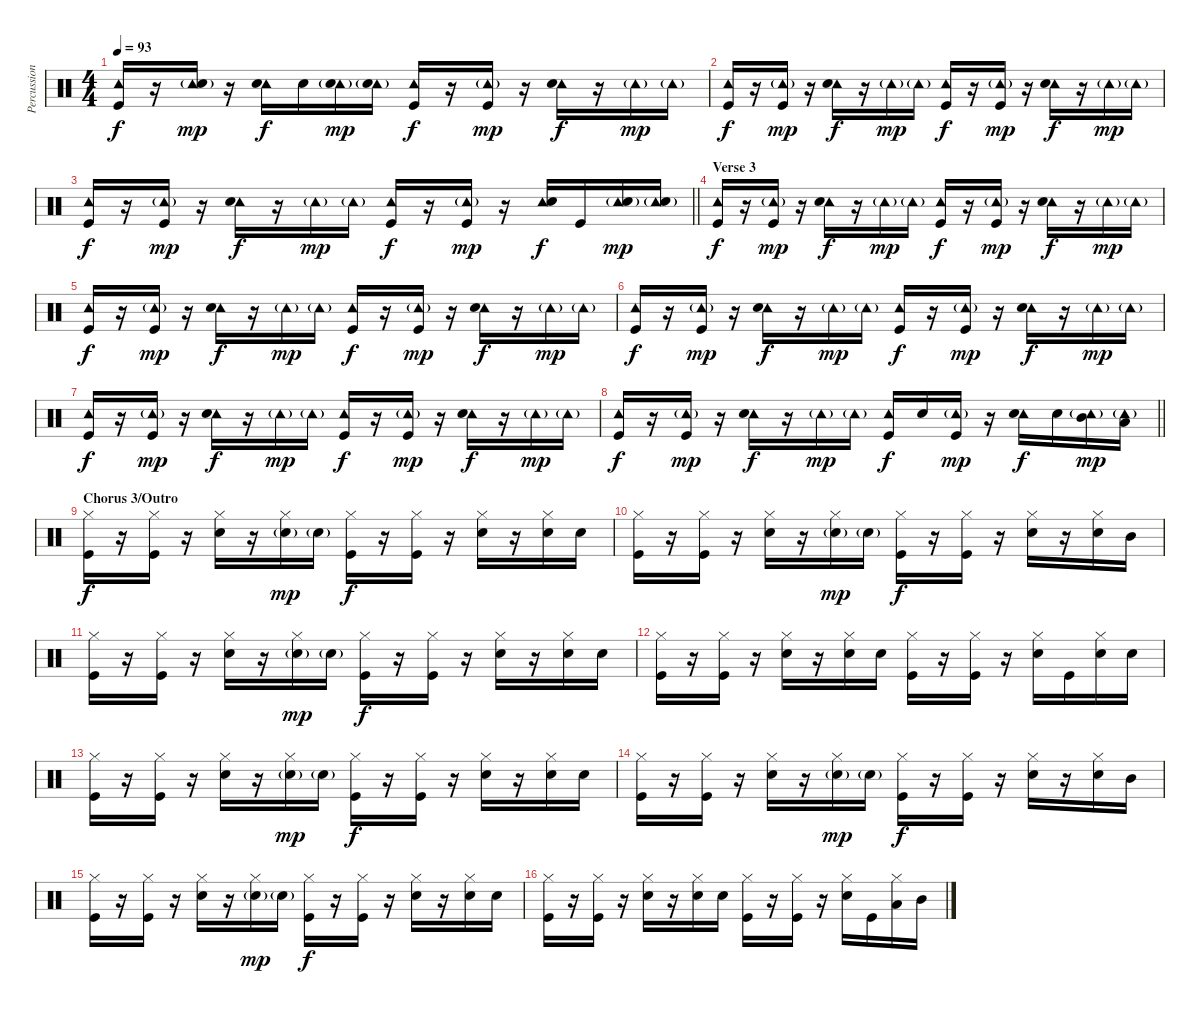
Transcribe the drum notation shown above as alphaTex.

\track ("Percussion" "Percussion") {instrument percussion}
\staff {score}
\articulation defaults
\ts (4 4)
\tempo 93
\clef neutral
\ks c
("Tambourine (hit)" "Kick (hit)").16{dy f} r.16 ("Tambourine (hit)"{g} "Snare (hit) 2").16{dy mp} r.16 ("Tambourine (hit)" "Snare (hit) 2").16{dy f} "Snare (hit) 2".16 ("Tambourine (hit)"{g} "Snare (hit) 2").16{dy mp} ("Tambourine (hit)"{g} "Snare (hit) 2").16 ("Tambourine (hit)" "Kick (hit)").16{dy f} r.16 ("Tambourine (hit)"{g} "Kick (hit)").16{dy mp} r.16 ("Tambourine (hit)" "Snare (hit) 2").16{dy f} r.16 "Tambourine (hit)"{g}.16{dy mp} "Tambourine (hit)"{g}.16 |
("Tambourine (hit)" "Kick (hit)").16{dy f} r.16 ("Tambourine (hit)"{g} "Kick (hit)").16{dy mp} r.16 ("Tambourine (hit)" "Snare (hit) 2").16{dy f} r.16 "Tambourine (hit)"{g}.16{dy mp} "Tambourine (hit)"{g}.16 ("Tambourine (hit)" "Kick (hit)").16{dy f} r.16 ("Tambourine (hit)"{g} "Kick (hit)").16{dy mp} r.16 ("Tambourine (hit)" "Snare (hit) 2").16{dy f} r.16 "Tambourine (hit)"{g}.16{dy mp} "Tambourine (hit)"{g}.16 |
\barLineRight lightlight
("Tambourine (hit)" "Kick (hit)").16{dy f} r.16 ("Tambourine (hit)"{g} "Kick (hit)").16{dy mp} r.16 ("Tambourine (hit)" "Snare (hit) 2").16{dy f} r.16 "Tambourine (hit)"{g}.16{dy mp} "Tambourine (hit)"{g}.16 ("Tambourine (hit)" "Kick (hit)").16{dy f} r.16 ("Tambourine (hit)"{g} "Kick (hit)").16{dy mp} r.16 ("Tambourine (hit)" "Snare (hit) 2").16{dy f} "Kick (hit)".16 ("Tambourine (hit)"{g} "Snare (hit) 2").16{dy mp} ("Tambourine (hit)"{g} "Snare (hit) 2").16 |
\section ("" "Verse 3")
("Tambourine (hit)" "Kick (hit)").16{dy f} r.16 ("Tambourine (hit)"{g} "Kick (hit)").16{dy mp} r.16 ("Tambourine (hit)" "Snare (hit) 2").16{dy f} r.16 "Tambourine (hit)"{g}.16{dy mp} "Tambourine (hit)"{g}.16 ("Tambourine (hit)" "Kick (hit)").16{dy f} r.16 ("Tambourine (hit)"{g} "Kick (hit)").16{dy mp} r.16 ("Tambourine (hit)" "Snare (hit) 2").16{dy f} r.16 "Tambourine (hit)"{g}.16{dy mp} "Tambourine (hit)"{g}.16 |
("Tambourine (hit)" "Kick (hit)").16{dy f} r.16 ("Tambourine (hit)"{g} "Kick (hit)").16{dy mp} r.16 ("Tambourine (hit)" "Snare (hit) 2").16{dy f} r.16 "Tambourine (hit)"{g}.16{dy mp} "Tambourine (hit)"{g}.16 ("Tambourine (hit)" "Kick (hit)").16{dy f} r.16 ("Tambourine (hit)"{g} "Kick (hit)").16{dy mp} r.16 ("Tambourine (hit)" "Snare (hit) 2").16{dy f} r.16 "Tambourine (hit)"{g}.16{dy mp} "Tambourine (hit)"{g}.16 |
("Tambourine (hit)" "Kick (hit)").16{dy f} r.16 ("Tambourine (hit)"{g} "Kick (hit)").16{dy mp} r.16 ("Tambourine (hit)" "Snare (hit) 2").16{dy f} r.16 "Tambourine (hit)"{g}.16{dy mp} "Tambourine (hit)"{g}.16 ("Tambourine (hit)" "Kick (hit)").16{dy f} r.16 ("Tambourine (hit)"{g} "Kick (hit)").16{dy mp} r.16 ("Tambourine (hit)" "Snare (hit) 2").16{dy f} r.16 "Tambourine (hit)"{g}.16{dy mp} "Tambourine (hit)"{g}.16 |
("Tambourine (hit)" "Kick (hit)").16{dy f} r.16 ("Tambourine (hit)"{g} "Kick (hit)").16{dy mp} r.16 ("Tambourine (hit)" "Snare (hit) 2").16{dy f} r.16 "Tambourine (hit)"{g}.16{dy mp} "Tambourine (hit)"{g}.16 ("Tambourine (hit)" "Kick (hit)").16{dy f} r.16 ("Tambourine (hit)"{g} "Kick (hit)").16{dy mp} r.16 ("Tambourine (hit)" "Snare (hit) 2").16{dy f} r.16 "Tambourine (hit)"{g}.16{dy mp} "Tambourine (hit)"{g}.16 |
\barLineRight lightlight
("Tambourine (hit)" "Kick (hit)").16{dy f} r.16 ("Tambourine (hit)"{g} "Kick (hit)").16{dy mp} r.16 ("Tambourine (hit)" "Snare (hit) 2").16{dy f} r.16 "Tambourine (hit)"{g}.16{dy mp} "Tambourine (hit)"{g}.16 ("Tambourine (hit)" "Kick (hit)").16{dy f} "Snare (hit) 2".16 ("Tambourine (hit)"{g} "Kick (hit)").16{dy mp} r.16 ("Tambourine (hit)" "Snare (hit) 2").16{dy f} "Snare (hit) 2".16 ("Tambourine (hit)"{g} "Mid Tom (hit)").16{dy mp} ("Tambourine (hit)"{g} "Low Tom (hit)").16 |
\section ("" "Chorus 3/Outro")
("Hi-Hat (closed)" "Kick (hit)").16{dy f} r.16 ("Hi-Hat (closed)" "Kick (hit)").16 r.16 ("Hi-Hat (closed)" "Snare (hit) 2").16 r.16 ("Hi-Hat (closed)" "Snare (hit) 2"{g}).16{dy mp} "Snare (hit) 2"{g}.16 ("Hi-Hat (closed)" "Kick (hit)").16{dy f} r.16 ("Hi-Hat (closed)" "Kick (hit)").16 r.16 ("Hi-Hat (closed)" "Snare (hit) 2").16 r.16 ("Hi-Hat (closed)" "Snare (hit) 2").16 "Snare (hit) 2".16 |
("Hi-Hat (closed)" "Kick (hit)").16 r.16 ("Hi-Hat (closed)" "Kick (hit)").16 r.16 ("Hi-Hat (closed)" "Snare (hit) 2").16 r.16 ("Hi-Hat (closed)" "Snare (hit) 2"{g}).16{dy mp} "Snare (hit) 2"{g}.16 ("Hi-Hat (closed)" "Kick (hit)").16{dy f} r.16 ("Hi-Hat (closed)" "Kick (hit)").16 r.16 ("Hi-Hat (closed)" "Snare (hit) 2").16 r.16 ("Hi-Hat (closed)" "Snare (hit) 2").16 "Mid Tom (hit)".16 |
("Hi-Hat (closed)" "Kick (hit)").16 r.16 ("Hi-Hat (closed)" "Kick (hit)").16 r.16 ("Hi-Hat (closed)" "Snare (hit) 2").16 r.16 ("Hi-Hat (closed)" "Snare (hit) 2"{g}).16{dy mp} "Snare (hit) 2"{g}.16 ("Hi-Hat (closed)" "Kick (hit)").16{dy f} r.16 ("Hi-Hat (closed)" "Kick (hit)").16 r.16 ("Hi-Hat (closed)" "Snare (hit) 2").16 r.16 ("Hi-Hat (closed)" "Snare (hit) 2").16 "Snare (hit) 2".16 |
("Hi-Hat (closed)" "Kick (hit)").16 r.16 ("Hi-Hat (closed)" "Kick (hit)").16 r.16 ("Hi-Hat (closed)" "Snare (hit) 2").16 r.16 ("Hi-Hat (closed)" "Snare (hit) 2").16 "Snare (hit) 2".16 ("Hi-Hat (closed)" "Kick (hit)").16 r.16 ("Hi-Hat (closed)" "Kick (hit)").16 r.16 ("Hi-Hat (closed)" "Snare (hit) 2").16 "Kick (hit)".16 ("Hi-Hat (closed)" "Snare (hit) 2").16 "Snare (hit) 2".16 |
("Hi-Hat (closed)" "Kick (hit)").16 r.16 ("Hi-Hat (closed)" "Kick (hit)").16 r.16 ("Hi-Hat (closed)" "Snare (hit) 2").16 r.16 ("Hi-Hat (closed)" "Snare (hit) 2"{g}).16{dy mp} "Snare (hit) 2"{g}.16 ("Hi-Hat (closed)" "Kick (hit)").16{dy f} r.16 ("Hi-Hat (closed)" "Kick (hit)").16 r.16 ("Hi-Hat (closed)" "Snare (hit) 2").16 r.16 ("Hi-Hat (closed)" "Snare (hit) 2").16 "Snare (hit) 2".16 |
("Hi-Hat (closed)" "Kick (hit)").16 r.16 ("Hi-Hat (closed)" "Kick (hit)").16 r.16 ("Hi-Hat (closed)" "Snare (hit) 2").16 r.16 ("Hi-Hat (closed)" "Snare (hit) 2"{g}).16{dy mp} "Snare (hit) 2"{g}.16 ("Hi-Hat (closed)" "Kick (hit)").16{dy f} r.16 ("Hi-Hat (closed)" "Kick (hit)").16 r.16 ("Hi-Hat (closed)" "Snare (hit) 2").16 r.16 ("Hi-Hat (closed)" "Snare (hit) 2").16 "Mid Tom (hit)".16 |
("Hi-Hat (closed)" "Kick (hit)").16 r.16 ("Hi-Hat (closed)" "Kick (hit)").16 r.16 ("Hi-Hat (closed)" "Snare (hit) 2").16 r.16 ("Hi-Hat (closed)" "Snare (hit) 2"{g}).16{dy mp} "Snare (hit) 2"{g}.16 ("Hi-Hat (closed)" "Kick (hit)").16{dy f} r.16 ("Hi-Hat (closed)" "Kick (hit)").16 r.16 ("Hi-Hat (closed)" "Snare (hit) 2").16 r.16 ("Hi-Hat (closed)" "Snare (hit) 2").16 "Snare (hit) 2".16 |
("Hi-Hat (closed)" "Kick (hit)").16 r.16 ("Hi-Hat (closed)" "Kick (hit)").16 r.16 ("Hi-Hat (closed)" "Snare (hit) 2").16 r.16 ("Hi-Hat (closed)" "Snare (hit) 2").16 "Snare (hit) 2".16 ("Hi-Hat (closed)" "Kick (hit)").16 r.16 ("Hi-Hat (closed)" "Kick (hit)").16 r.16 ("Hi-Hat (closed)" "Snare (hit) 2").16 "Kick (hit)".16 ("Hi-Hat (closed)" "Low Tom (hit)").16 "Mid Tom (hit)".16
